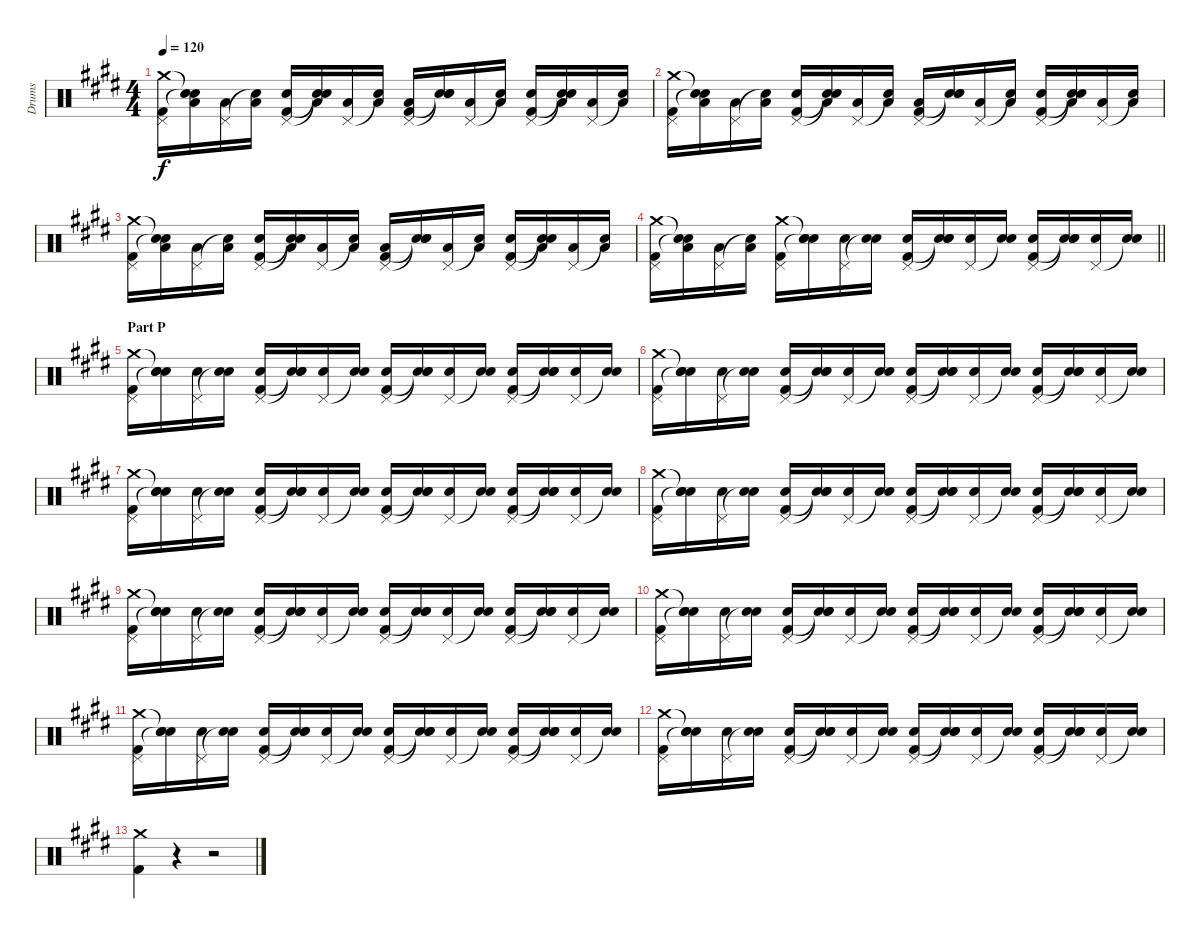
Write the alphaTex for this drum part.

\track ("Drums" "Drums") {instrument percussion}
\staff {score}
\articulation defaults
\ts (4 4)
\tempo 120
\clef neutral
\ks e
("Crash medium (hit)" "Pedal Hi-Hat (hit)" "Kick (hit) 2").16{dy f} ("Snare (hit)"{t} "Low Floor Tom (hit)" "Snare (hit)"{t}).16 ("Pedal Hi-Hat (hit)" "Low Floor Tom (hit)").16 ("Snare (hit)"{t} "Low Floor Tom (hit)").16 ("Pedal Hi-Hat (hit)" "Electric Snare (hit)" "Kick (hit) 2").16 ("Snare (hit)"{t} "Low Floor Tom (hit)" "Snare (hit)"{t}).16 ("Pedal Hi-Hat (hit)" "Low Floor Tom (hit)").16 ("Snare (hit)"{t} "Low Floor Tom (hit)").16 ("Pedal Hi-Hat (hit)" "Low Floor Tom (hit)" "Kick (hit) 2").16 ("Snare (hit)"{t} "Electric Snare (hit)" "Snare (hit)"{t}).16 ("Pedal Hi-Hat (hit)" "Low Floor Tom (hit)").16 ("Snare (hit)"{t} "Low Floor Tom (hit)").16 ("Pedal Hi-Hat (hit)" "Electric Snare (hit)" "Kick (hit) 2").16 ("Snare (hit)"{t} "Low Floor Tom (hit)" "Snare (hit)"{t}).16 ("Pedal Hi-Hat (hit)" "Low Floor Tom (hit)").16 ("Snare (hit)"{t} "Low Floor Tom (hit)").16 |
("Crash medium (hit)" "Pedal Hi-Hat (hit)" "Kick (hit) 2").16 ("Snare (hit)"{t} "Low Floor Tom (hit)" "Snare (hit)"{t}).16 ("Pedal Hi-Hat (hit)" "Low Floor Tom (hit)").16 ("Snare (hit)"{t} "Low Floor Tom (hit)").16 ("Pedal Hi-Hat (hit)" "Electric Snare (hit)" "Kick (hit) 2").16 ("Snare (hit)"{t} "Low Floor Tom (hit)" "Snare (hit)"{t}).16 ("Pedal Hi-Hat (hit)" "Low Floor Tom (hit)").16 ("Snare (hit)"{t} "Low Floor Tom (hit)").16 ("Pedal Hi-Hat (hit)" "Low Floor Tom (hit)" "Kick (hit) 2").16 ("Snare (hit)"{t} "Electric Snare (hit)" "Snare (hit)"{t}).16 ("Pedal Hi-Hat (hit)" "Low Floor Tom (hit)").16 ("Snare (hit)"{t} "Low Floor Tom (hit)").16 ("Pedal Hi-Hat (hit)" "Electric Snare (hit)" "Kick (hit) 2").16 ("Snare (hit)"{t} "Low Floor Tom (hit)" "Snare (hit)"{t}).16 ("Pedal Hi-Hat (hit)" "Low Floor Tom (hit)").16 ("Snare (hit)"{t} "Low Floor Tom (hit)").16 |
("Crash medium (hit)" "Pedal Hi-Hat (hit)" "Kick (hit) 2").16 ("Snare (hit)"{t} "Low Floor Tom (hit)" "Snare (hit)"{t}).16 ("Pedal Hi-Hat (hit)" "Low Floor Tom (hit)").16 ("Snare (hit)"{t} "Low Floor Tom (hit)").16 ("Pedal Hi-Hat (hit)" "Electric Snare (hit)" "Kick (hit) 2").16 ("Snare (hit)"{t} "Low Floor Tom (hit)" "Snare (hit)"{t}).16 ("Pedal Hi-Hat (hit)" "Low Floor Tom (hit)").16 ("Snare (hit)"{t} "Low Floor Tom (hit)").16 ("Pedal Hi-Hat (hit)" "Low Floor Tom (hit)" "Kick (hit) 2").16 ("Snare (hit)"{t} "Electric Snare (hit)" "Snare (hit)"{t}).16 ("Pedal Hi-Hat (hit)" "Low Floor Tom (hit)").16 ("Snare (hit)"{t} "Low Floor Tom (hit)").16 ("Pedal Hi-Hat (hit)" "Electric Snare (hit)" "Kick (hit) 2").16 ("Snare (hit)"{t} "Low Floor Tom (hit)" "Snare (hit)"{t}).16 ("Pedal Hi-Hat (hit)" "Low Floor Tom (hit)").16 ("Snare (hit)"{t} "Low Floor Tom (hit)").16 |
\barLineRight lightlight
("Crash medium (hit)" "Pedal Hi-Hat (hit)" "Kick (hit) 2").16 ("Snare (hit)"{t} "Low Floor Tom (hit)" "Snare (hit)"{t}).16 ("Pedal Hi-Hat (hit)" "Low Floor Tom (hit)").16 ("Snare (hit)"{t} "Low Floor Tom (hit)").16 ("Crash medium (hit)" "Pedal Hi-Hat (hit)" "Kick (hit) 2").16 ("Snare (hit)"{t} "Electric Snare (hit)" "Snare (hit)"{t}).16 ("Pedal Hi-Hat (hit)" "Electric Snare (hit)").16 ("Snare (hit)"{t} "Electric Snare (hit)").16 ("Pedal Hi-Hat (hit)" "Electric Snare (hit)" "Kick (hit) 2").16 ("Snare (hit)"{t} "Electric Snare (hit)" "Snare (hit)"{t}).16 ("Pedal Hi-Hat (hit)" "Electric Snare (hit)").16 ("Snare (hit)"{t} "Electric Snare (hit)").16 ("Pedal Hi-Hat (hit)" "Electric Snare (hit)" "Kick (hit) 2").16 ("Snare (hit)"{t} "Electric Snare (hit)" "Snare (hit)"{t}).16 ("Pedal Hi-Hat (hit)" "Electric Snare (hit)").16 ("Snare (hit)"{t} "Electric Snare (hit)").16 |
\section ("" "Part P")
("Crash medium (hit)" "Pedal Hi-Hat (hit)" "Kick (hit) 2").16 ("Snare (hit)"{t} "Electric Snare (hit)" "Snare (hit)"{t}).16 ("Pedal Hi-Hat (hit)" "Electric Snare (hit)").16 ("Snare (hit)"{t} "Electric Snare (hit)").16 ("Pedal Hi-Hat (hit)" "Electric Snare (hit)" "Kick (hit) 2").16 ("Snare (hit)"{t} "Electric Snare (hit)" "Snare (hit)"{t}).16 ("Pedal Hi-Hat (hit)" "Electric Snare (hit)").16 ("Snare (hit)"{t} "Electric Snare (hit)").16 ("Pedal Hi-Hat (hit)" "Electric Snare (hit)" "Kick (hit) 2").16 ("Snare (hit)"{t} "Electric Snare (hit)" "Snare (hit)"{t}).16 ("Pedal Hi-Hat (hit)" "Electric Snare (hit)").16 ("Snare (hit)"{t} "Electric Snare (hit)").16 ("Pedal Hi-Hat (hit)" "Electric Snare (hit)" "Kick (hit) 2").16 ("Snare (hit)"{t} "Electric Snare (hit)" "Snare (hit)"{t}).16 ("Pedal Hi-Hat (hit)" "Electric Snare (hit)").16 ("Snare (hit)"{t} "Electric Snare (hit)").16 |
("Crash medium (hit)" "Pedal Hi-Hat (hit)" "Kick (hit) 2").16 ("Snare (hit)"{t} "Electric Snare (hit)" "Snare (hit)"{t}).16 ("Pedal Hi-Hat (hit)" "Electric Snare (hit)").16 ("Snare (hit)"{t} "Electric Snare (hit)").16 ("Pedal Hi-Hat (hit)" "Electric Snare (hit)" "Kick (hit) 2").16 ("Snare (hit)"{t} "Electric Snare (hit)" "Snare (hit)"{t}).16 ("Pedal Hi-Hat (hit)" "Electric Snare (hit)").16 ("Snare (hit)"{t} "Electric Snare (hit)").16 ("Pedal Hi-Hat (hit)" "Electric Snare (hit)" "Kick (hit) 2").16 ("Snare (hit)"{t} "Electric Snare (hit)" "Snare (hit)"{t}).16 ("Pedal Hi-Hat (hit)" "Electric Snare (hit)").16 ("Snare (hit)"{t} "Electric Snare (hit)").16 ("Pedal Hi-Hat (hit)" "Electric Snare (hit)" "Kick (hit) 2").16 ("Snare (hit)"{t} "Electric Snare (hit)" "Snare (hit)"{t}).16 ("Pedal Hi-Hat (hit)" "Electric Snare (hit)").16 ("Snare (hit)"{t} "Electric Snare (hit)").16 |
("Crash medium (hit)" "Pedal Hi-Hat (hit)" "Kick (hit) 2").16 ("Snare (hit)"{t} "Electric Snare (hit)" "Snare (hit)"{t}).16 ("Pedal Hi-Hat (hit)" "Electric Snare (hit)").16 ("Snare (hit)"{t} "Electric Snare (hit)").16 ("Pedal Hi-Hat (hit)" "Electric Snare (hit)" "Kick (hit) 2").16 ("Snare (hit)"{t} "Electric Snare (hit)" "Snare (hit)"{t}).16 ("Pedal Hi-Hat (hit)" "Electric Snare (hit)").16 ("Snare (hit)"{t} "Electric Snare (hit)").16 ("Pedal Hi-Hat (hit)" "Electric Snare (hit)" "Kick (hit) 2").16 ("Snare (hit)"{t} "Electric Snare (hit)" "Snare (hit)"{t}).16 ("Pedal Hi-Hat (hit)" "Electric Snare (hit)").16 ("Snare (hit)"{t} "Electric Snare (hit)").16 ("Pedal Hi-Hat (hit)" "Electric Snare (hit)" "Kick (hit) 2").16 ("Snare (hit)"{t} "Electric Snare (hit)" "Snare (hit)"{t}).16 ("Pedal Hi-Hat (hit)" "Electric Snare (hit)").16 ("Snare (hit)"{t} "Electric Snare (hit)").16 |
("Crash medium (hit)" "Pedal Hi-Hat (hit)" "Kick (hit) 2").16 ("Snare (hit)"{t} "Electric Snare (hit)" "Snare (hit)"{t}).16 ("Pedal Hi-Hat (hit)" "Electric Snare (hit)").16 ("Snare (hit)"{t} "Electric Snare (hit)").16 ("Pedal Hi-Hat (hit)" "Electric Snare (hit)" "Kick (hit) 2").16 ("Snare (hit)"{t} "Electric Snare (hit)" "Snare (hit)"{t}).16 ("Pedal Hi-Hat (hit)" "Electric Snare (hit)").16 ("Snare (hit)"{t} "Electric Snare (hit)").16 ("Pedal Hi-Hat (hit)" "Electric Snare (hit)" "Kick (hit) 2").16 ("Snare (hit)"{t} "Electric Snare (hit)" "Snare (hit)"{t}).16 ("Pedal Hi-Hat (hit)" "Electric Snare (hit)").16 ("Snare (hit)"{t} "Electric Snare (hit)").16 ("Pedal Hi-Hat (hit)" "Electric Snare (hit)" "Kick (hit) 2").16 ("Snare (hit)"{t} "Electric Snare (hit)" "Snare (hit)"{t}).16 ("Pedal Hi-Hat (hit)" "Electric Snare (hit)").16 ("Snare (hit)"{t} "Electric Snare (hit)").16 |
("Crash medium (hit)" "Pedal Hi-Hat (hit)" "Kick (hit) 2").16 ("Snare (hit)"{t} "Electric Snare (hit)" "Snare (hit)"{t}).16 ("Pedal Hi-Hat (hit)" "Electric Snare (hit)").16 ("Snare (hit)"{t} "Electric Snare (hit)").16 ("Pedal Hi-Hat (hit)" "Electric Snare (hit)" "Kick (hit) 2").16 ("Snare (hit)"{t} "Electric Snare (hit)" "Snare (hit)"{t}).16 ("Pedal Hi-Hat (hit)" "Electric Snare (hit)").16 ("Snare (hit)"{t} "Electric Snare (hit)").16 ("Pedal Hi-Hat (hit)" "Electric Snare (hit)" "Kick (hit) 2").16 ("Snare (hit)"{t} "Electric Snare (hit)" "Snare (hit)"{t}).16 ("Pedal Hi-Hat (hit)" "Electric Snare (hit)").16 ("Snare (hit)"{t} "Electric Snare (hit)").16 ("Pedal Hi-Hat (hit)" "Electric Snare (hit)" "Kick (hit) 2").16 ("Snare (hit)"{t} "Electric Snare (hit)" "Snare (hit)"{t}).16 ("Pedal Hi-Hat (hit)" "Electric Snare (hit)").16 ("Snare (hit)"{t} "Electric Snare (hit)").16 |
("Crash medium (hit)" "Pedal Hi-Hat (hit)" "Kick (hit) 2").16 ("Snare (hit)"{t} "Electric Snare (hit)" "Snare (hit)"{t}).16 ("Pedal Hi-Hat (hit)" "Electric Snare (hit)").16 ("Snare (hit)"{t} "Electric Snare (hit)").16 ("Pedal Hi-Hat (hit)" "Electric Snare (hit)" "Kick (hit) 2").16 ("Snare (hit)"{t} "Electric Snare (hit)" "Snare (hit)"{t}).16 ("Pedal Hi-Hat (hit)" "Electric Snare (hit)").16 ("Snare (hit)"{t} "Electric Snare (hit)").16 ("Pedal Hi-Hat (hit)" "Electric Snare (hit)" "Kick (hit) 2").16 ("Snare (hit)"{t} "Electric Snare (hit)" "Snare (hit)"{t}).16 ("Pedal Hi-Hat (hit)" "Electric Snare (hit)").16 ("Snare (hit)"{t} "Electric Snare (hit)").16 ("Pedal Hi-Hat (hit)" "Electric Snare (hit)" "Kick (hit) 2").16 ("Snare (hit)"{t} "Electric Snare (hit)" "Snare (hit)"{t}).16 ("Pedal Hi-Hat (hit)" "Electric Snare (hit)").16 ("Snare (hit)"{t} "Electric Snare (hit)").16 |
("Crash medium (hit)" "Pedal Hi-Hat (hit)" "Kick (hit) 2").16 ("Snare (hit)"{t} "Electric Snare (hit)" "Snare (hit)"{t}).16 ("Pedal Hi-Hat (hit)" "Electric Snare (hit)").16 ("Snare (hit)"{t} "Electric Snare (hit)").16 ("Pedal Hi-Hat (hit)" "Electric Snare (hit)" "Kick (hit) 2").16 ("Snare (hit)"{t} "Electric Snare (hit)" "Snare (hit)"{t}).16 ("Pedal Hi-Hat (hit)" "Electric Snare (hit)").16 ("Snare (hit)"{t} "Electric Snare (hit)").16 ("Pedal Hi-Hat (hit)" "Electric Snare (hit)" "Kick (hit) 2").16 ("Snare (hit)"{t} "Electric Snare (hit)" "Snare (hit)"{t}).16 ("Pedal Hi-Hat (hit)" "Electric Snare (hit)").16 ("Snare (hit)"{t} "Electric Snare (hit)").16 ("Pedal Hi-Hat (hit)" "Electric Snare (hit)" "Kick (hit) 2").16 ("Snare (hit)"{t} "Electric Snare (hit)" "Snare (hit)"{t}).16 ("Pedal Hi-Hat (hit)" "Electric Snare (hit)").16 ("Snare (hit)"{t} "Electric Snare (hit)").16 |
("Crash medium (hit)" "Pedal Hi-Hat (hit)" "Kick (hit) 2").16 ("Snare (hit)"{t} "Electric Snare (hit)" "Snare (hit)"{t}).16 ("Pedal Hi-Hat (hit)" "Electric Snare (hit)").16 ("Snare (hit)"{t} "Electric Snare (hit)").16 ("Pedal Hi-Hat (hit)" "Electric Snare (hit)" "Kick (hit) 2").16 ("Snare (hit)"{t} "Electric Snare (hit)" "Snare (hit)"{t}).16 ("Pedal Hi-Hat (hit)" "Electric Snare (hit)").16 ("Snare (hit)"{t} "Electric Snare (hit)").16 ("Pedal Hi-Hat (hit)" "Electric Snare (hit)" "Kick (hit) 2").16 ("Snare (hit)"{t} "Electric Snare (hit)" "Snare (hit)"{t}).16 ("Pedal Hi-Hat (hit)" "Electric Snare (hit)").16 ("Snare (hit)"{t} "Electric Snare (hit)").16 ("Pedal Hi-Hat (hit)" "Electric Snare (hit)" "Kick (hit) 2").16 ("Snare (hit)"{t} "Electric Snare (hit)" "Snare (hit)"{t}).16 ("Pedal Hi-Hat (hit)" "Electric Snare (hit)").16 ("Snare (hit)"{t} "Electric Snare (hit)").16 |
("Crash medium (hit)" "Kick (hit) 2").4 r.4 r.2
